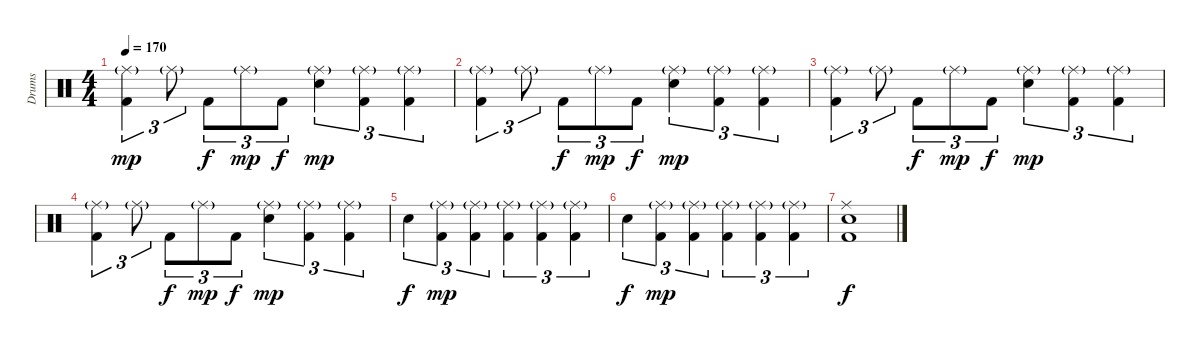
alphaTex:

\track ("Drums" "Drums") {instrument percussion}
\staff {score}
\articulation defaults
\ts (4 4)
\tempo 170
\clef neutral
\ks c
("Ride (middle)"{g} "Kick (hit) 2").4{tu (3 2) dy mp} "Ride (middle)"{g}.8{tu (3 2)} "Kick (hit) 2".8{tu (3 2) dy f} "Ride (middle)"{g}.8{tu (3 2) dy mp} "Kick (hit) 2".8{tu (3 2) dy f} ("Ride (middle)"{g} "Electric Snare (hit)").4{tu (3 2) dy mp} ("Ride (middle)"{g} "Kick (hit) 2").4{tu (3 2)} ("Ride (middle)"{g} "Kick (hit) 2").4{tu (3 2)} |
("Ride (middle)"{g} "Kick (hit) 2").4{tu (3 2)} "Ride (middle)"{g}.8{tu (3 2)} "Kick (hit) 2".8{tu (3 2) dy f} "Ride (middle)"{g}.8{tu (3 2) dy mp} "Kick (hit) 2".8{tu (3 2) dy f} ("Ride (middle)"{g} "Electric Snare (hit)").4{tu (3 2) dy mp} ("Ride (middle)"{g} "Kick (hit) 2").4{tu (3 2)} ("Ride (middle)"{g} "Kick (hit) 2").4{tu (3 2)} |
("Ride (middle)"{g} "Kick (hit) 2").4{tu (3 2)} "Ride (middle)"{g}.8{tu (3 2)} "Kick (hit) 2".8{tu (3 2) dy f} "Ride (middle)"{g}.8{tu (3 2) dy mp} "Kick (hit) 2".8{tu (3 2) dy f} ("Ride (middle)"{g} "Electric Snare (hit)").4{tu (3 2) dy mp} ("Ride (middle)"{g} "Kick (hit) 2").4{tu (3 2)} ("Ride (middle)"{g} "Kick (hit) 2").4{tu (3 2)} |
("Ride (middle)"{g} "Kick (hit) 2").4{tu (3 2)} "Ride (middle)"{g}.8{tu (3 2)} "Kick (hit) 2".8{tu (3 2) dy f} "Ride (middle)"{g}.8{tu (3 2) dy mp} "Kick (hit) 2".8{tu (3 2) dy f} ("Ride (middle)"{g} "Electric Snare (hit)").4{tu (3 2) dy mp} ("Ride (middle)"{g} "Kick (hit) 2").4{tu (3 2)} ("Ride (middle)"{g} "Kick (hit) 2").4{tu (3 2)} |
"Electric Snare (hit)".4{tu (3 2) dy f} ("Ride (middle)"{g} "Kick (hit) 2").4{tu (3 2) dy mp} ("Ride (middle)"{g} "Kick (hit) 2").4{tu (3 2)} ("Ride (middle)"{g} "Kick (hit) 2").4{tu (3 2)} ("Ride (middle)"{g} "Kick (hit) 2").4{tu (3 2)} ("Ride (middle)"{g} "Kick (hit) 2").4{tu (3 2)} |
"Electric Snare (hit)".4{tu (3 2) dy f} ("Ride (middle)"{g} "Kick (hit) 2").4{tu (3 2) dy mp} ("Ride (middle)"{g} "Kick (hit) 2").4{tu (3 2)} ("Ride (middle)"{g} "Kick (hit) 2").4{tu (3 2)} ("Ride (middle)"{g} "Kick (hit) 2").4{tu (3 2)} ("Ride (middle)"{g} "Kick (hit) 2").4{tu (3 2)} |
("Ride (middle)" "Electric Snare (hit)" "Kick (hit) 2").1{dy f}
